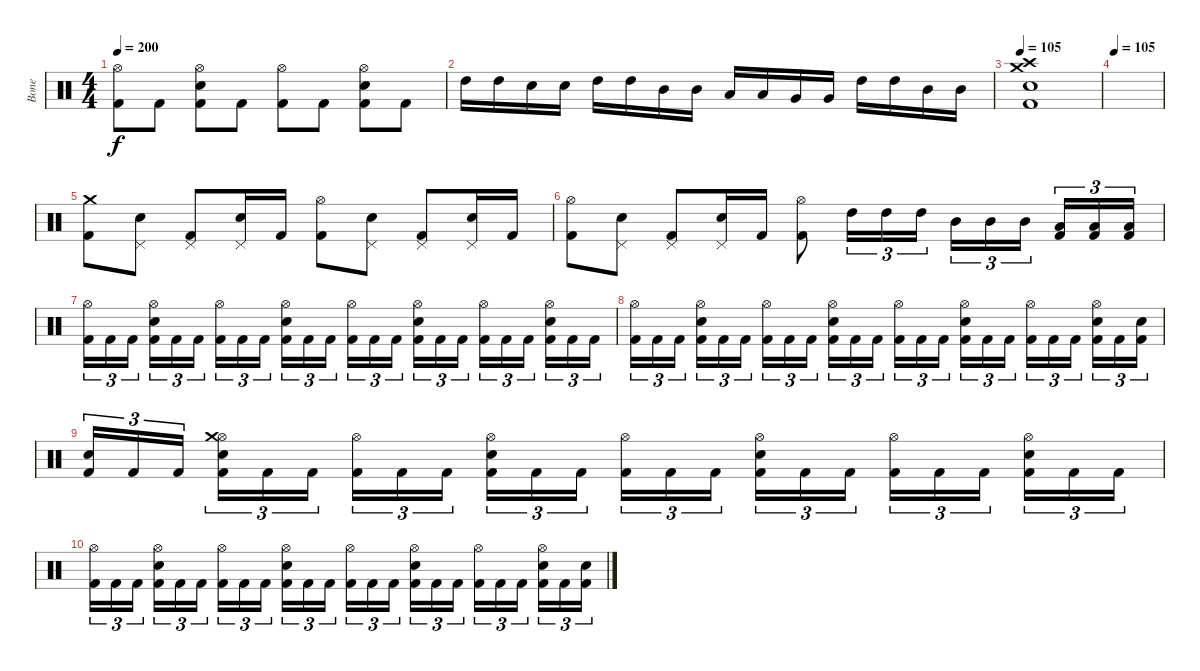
\track ("Bone " "Bone ") {instrument percussion}
\staff {score}
\articulation defaults
\ts (4 4)
\tempo 200
\clef neutral
\ks c
("Hi-Hat (open)" "Kick (hit) 2").8{dy f} "Kick (hit) 2".8 ("Hi-Hat (open)" "Electric Snare (hit)" "Kick (hit) 2").8 "Kick (hit) 2".8 ("Hi-Hat (open)" "Kick (hit) 2").8 "Kick (hit) 2".8 ("Hi-Hat (open)" "Electric Snare (hit)" "Kick (hit) 2").8 "Kick (hit) 2".8 |
"High Tom (hit)".16 "High Tom (hit)".16 "Electric Snare (hit)".16 "Electric Snare (hit)".16 "High Tom (hit)".16 "High Tom (hit)".16 "Mid Tom (hit)".16 "Mid Tom (hit)".16 "Low Tom (hit)".16 "Low Tom (hit)".16 "Very Low Tom (hit)".16 "Very Low Tom (hit)".16 "High Tom (hit)".16 "High Tom (hit)".16 "Mid Tom (hit)".16 "Mid Tom (hit)".16 |
\tempo 105
("Crash medium (hit)" "Crash high (hit)" "Electric Snare (hit)" "Kick (hit) 2").1 |
\tempo 105
|
("Crash medium (hit)" "Kick (hit) 2").8 ("Pedal Hi-Hat (hit)" "Electric Snare (hit)").8 ("Pedal Hi-Hat (hit)" "Kick (hit) 2").8 ("Pedal Hi-Hat (hit)" "Electric Snare (hit)").16 "Kick (hit) 2".16 ("Hi-Hat (open)" "Kick (hit) 2").8 ("Pedal Hi-Hat (hit)" "Electric Snare (hit)").8 ("Pedal Hi-Hat (hit)" "Kick (hit) 2").8 ("Pedal Hi-Hat (hit)" "Electric Snare (hit)").16 "Kick (hit) 2".16 |
("Hi-Hat (open)" "Kick (hit) 2").8 ("Pedal Hi-Hat (hit)" "Electric Snare (hit)").8 ("Pedal Hi-Hat (hit)" "Kick (hit) 2").8 ("Pedal Hi-Hat (hit)" "Electric Snare (hit)").16 "Kick (hit) 2".16 ("Hi-Hat (open)" "Kick (hit) 2").8 "High Tom (hit)".16{tu (3 2)} "High Tom (hit)".16{tu (3 2)} "High Tom (hit)".16{tu (3 2)} "Mid Tom (hit)".16{tu (3 2)} "Mid Tom (hit)".16{tu (3 2)} "Mid Tom (hit)".16{tu (3 2)} ("Low Tom (hit)" "Kick (hit) 2").16{tu (3 2)} ("Low Tom (hit)" "Kick (hit) 2").16{tu (3 2)} ("Low Tom (hit)" "Kick (hit) 2").16{tu (3 2)} |
("Hi-Hat (open)" "Kick (hit) 2").16{tu (3 2)} "Kick (hit) 2".16{tu (3 2)} "Kick (hit) 2".16{tu (3 2)} ("Hi-Hat (open)" "Snare (hit) 2" "Kick (hit) 2").16{tu (3 2)} "Kick (hit) 2".16{tu (3 2)} "Kick (hit) 2".16{tu (3 2)} ("Hi-Hat (open)" "Kick (hit) 2").16{tu (3 2)} "Kick (hit) 2".16{tu (3 2)} "Kick (hit) 2".16{tu (3 2)} ("Hi-Hat (open)" "Snare (hit) 2" "Kick (hit) 2").16{tu (3 2)} "Kick (hit) 2".16{tu (3 2)} "Kick (hit) 2".16{tu (3 2)} ("Hi-Hat (open)" "Kick (hit) 2").16{tu (3 2)} "Kick (hit) 2".16{tu (3 2)} "Kick (hit) 2".16{tu (3 2)} ("Hi-Hat (open)" "Snare (hit) 2" "Kick (hit) 2").16{tu (3 2)} "Kick (hit) 2".16{tu (3 2)} "Kick (hit) 2".16{tu (3 2)} ("Hi-Hat (open)" "Kick (hit) 2").16{tu (3 2)} "Kick (hit) 2".16{tu (3 2)} "Kick (hit) 2".16{tu (3 2)} ("Hi-Hat (open)" "Snare (hit) 2" "Kick (hit) 2").16{tu (3 2)} "Kick (hit) 2".16{tu (3 2)} "Kick (hit) 2".16{tu (3 2)} |
("Hi-Hat (open)" "Kick (hit) 2").16{tu (3 2)} "Kick (hit) 2".16{tu (3 2)} "Kick (hit) 2".16{tu (3 2)} ("Hi-Hat (open)" "Snare (hit) 2" "Kick (hit) 2").16{tu (3 2)} "Kick (hit) 2".16{tu (3 2)} "Kick (hit) 2".16{tu (3 2)} ("Hi-Hat (open)" "Kick (hit) 2").16{tu (3 2)} "Kick (hit) 2".16{tu (3 2)} "Kick (hit) 2".16{tu (3 2)} ("Hi-Hat (open)" "Snare (hit) 2" "Kick (hit) 2").16{tu (3 2)} "Kick (hit) 2".16{tu (3 2)} "Kick (hit) 2".16{tu (3 2)} ("Hi-Hat (open)" "Kick (hit) 2").16{tu (3 2)} "Kick (hit) 2".16{tu (3 2)} "Kick (hit) 2".16{tu (3 2)} ("Hi-Hat (open)" "Snare (hit) 2" "Kick (hit) 2").16{tu (3 2)} "Kick (hit) 2".16{tu (3 2)} "Kick (hit) 2".16{tu (3 2)} ("Hi-Hat (open)" "Kick (hit) 2").16{tu (3 2)} "Kick (hit) 2".16{tu (3 2)} "Kick (hit) 2".16{tu (3 2)} ("Hi-Hat (open)" "Snare (hit) 2" "Kick (hit) 2").16{tu (3 2)} "Kick (hit) 2".16{tu (3 2)} ("Snare (hit) 2" "Kick (hit) 2").16{tu (3 2)} |
("Snare (hit) 2" "Kick (hit) 2").16{tu (3 2)} "Kick (hit) 2".16{tu (3 2)} "Kick (hit) 2".16{tu (3 2)} ("Hi-Hat (open)" "Crash medium (hit)" "Snare (hit) 2" "Kick (hit) 2").16{tu (3 2)} "Kick (hit) 2".16{tu (3 2)} "Kick (hit) 2".16{tu (3 2)} ("Hi-Hat (open)" "Kick (hit) 2").16{tu (3 2)} "Kick (hit) 2".16{tu (3 2)} "Kick (hit) 2".16{tu (3 2)} ("Hi-Hat (open)" "Snare (hit) 2" "Kick (hit) 2").16{tu (3 2)} "Kick (hit) 2".16{tu (3 2)} "Kick (hit) 2".16{tu (3 2)} ("Hi-Hat (open)" "Kick (hit) 2").16{tu (3 2)} "Kick (hit) 2".16{tu (3 2)} "Kick (hit) 2".16{tu (3 2)} ("Hi-Hat (open)" "Snare (hit) 2" "Kick (hit) 2").16{tu (3 2)} "Kick (hit) 2".16{tu (3 2)} "Kick (hit) 2".16{tu (3 2)} ("Hi-Hat (open)" "Kick (hit) 2").16{tu (3 2)} "Kick (hit) 2".16{tu (3 2)} "Kick (hit) 2".16{tu (3 2)} ("Hi-Hat (open)" "Snare (hit) 2" "Kick (hit) 2").16{tu (3 2)} "Kick (hit) 2".16{tu (3 2)} "Kick (hit) 2".16{tu (3 2)} |
("Hi-Hat (open)" "Kick (hit) 2").16{tu (3 2)} "Kick (hit) 2".16{tu (3 2)} "Kick (hit) 2".16{tu (3 2)} ("Hi-Hat (open)" "Snare (hit) 2" "Kick (hit) 2").16{tu (3 2)} "Kick (hit) 2".16{tu (3 2)} "Kick (hit) 2".16{tu (3 2)} ("Hi-Hat (open)" "Kick (hit) 2").16{tu (3 2)} "Kick (hit) 2".16{tu (3 2)} "Kick (hit) 2".16{tu (3 2)} ("Hi-Hat (open)" "Snare (hit) 2" "Kick (hit) 2").16{tu (3 2)} "Kick (hit) 2".16{tu (3 2)} "Kick (hit) 2".16{tu (3 2)} ("Hi-Hat (open)" "Kick (hit) 2").16{tu (3 2)} "Kick (hit) 2".16{tu (3 2)} "Kick (hit) 2".16{tu (3 2)} ("Hi-Hat (open)" "Snare (hit) 2" "Kick (hit) 2").16{tu (3 2)} "Kick (hit) 2".16{tu (3 2)} "Kick (hit) 2".16{tu (3 2)} ("Hi-Hat (open)" "Kick (hit) 2").16{tu (3 2)} "Kick (hit) 2".16{tu (3 2)} "Kick (hit) 2".16{tu (3 2)} ("Hi-Hat (open)" "Snare (hit) 2" "Kick (hit) 2").16{tu (3 2)} "Kick (hit) 2".16{tu (3 2)} ("Snare (hit) 2" "Kick (hit) 2").16{tu (3 2)}
